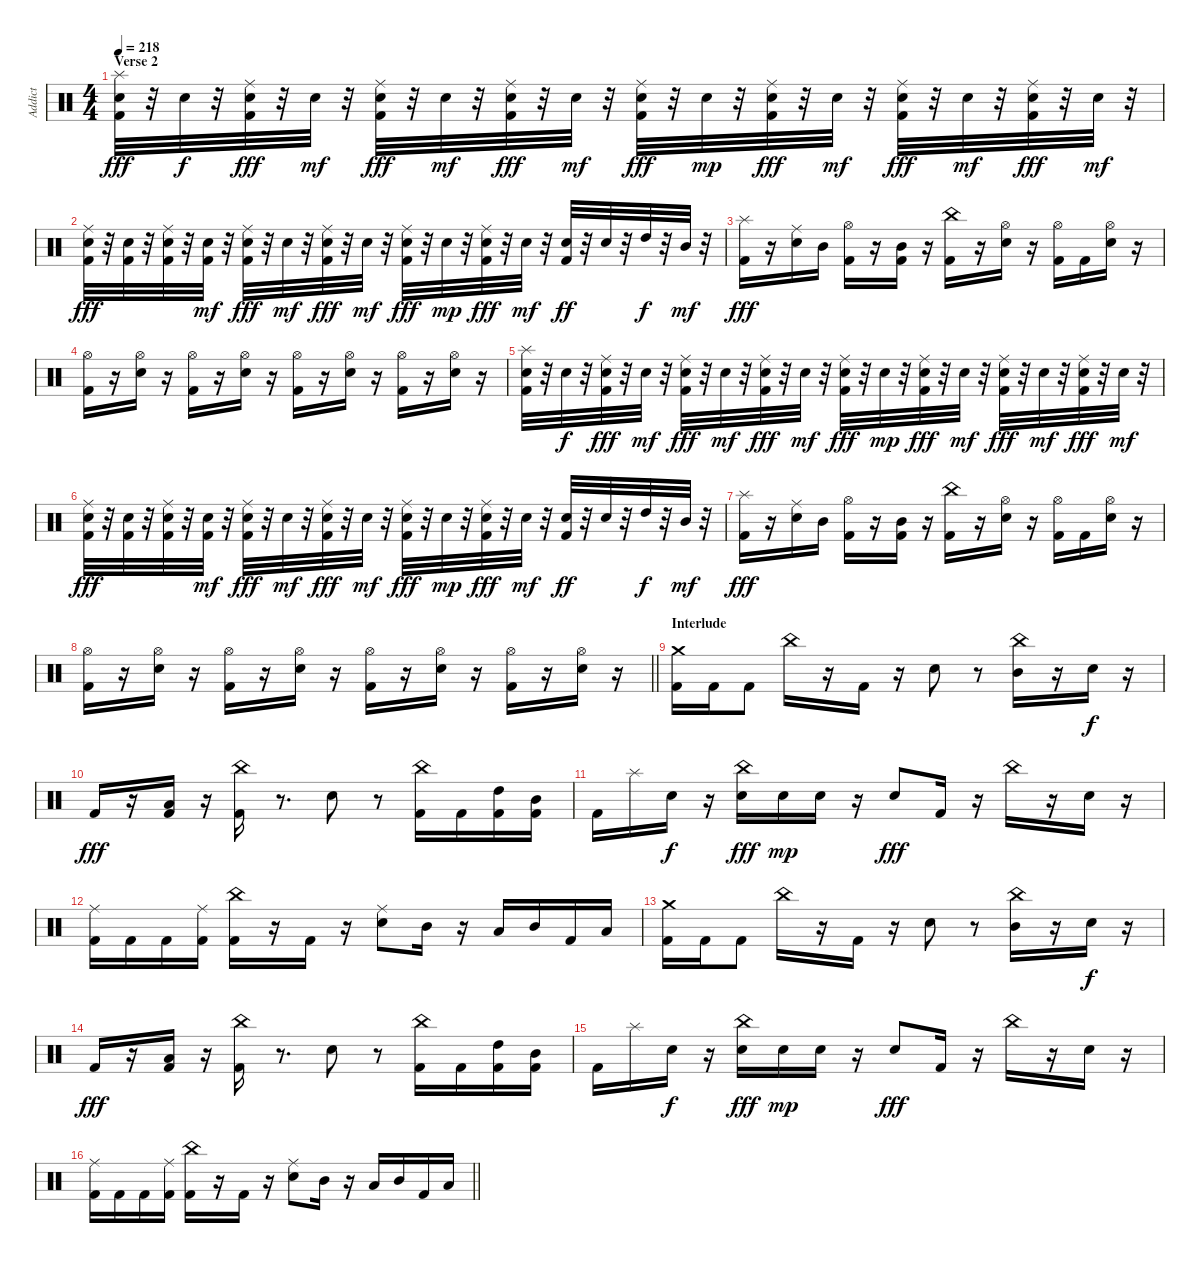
\track ("Addict" "Addict") {instrument percussion}
\staff {score}
\articulation defaults
\ts (4 4)
\section ("" "Verse 2")
\tempo 218
\clef neutral
\ks c
("Kick (hit) 2" "Snare (hit) 2" "Splash (hit)").32{dy fff} r.32 "Snare (hit) 2".32{dy f} r.32 ("Kick (hit) 2" "Snare (hit) 2" "Ride (middle)").32{dy fff} r.32 "Snare (hit) 2".32{dy mf} r.32 ("Kick (hit) 2" "Snare (hit) 2" "Ride (middle)").32{dy fff} r.32 "Snare (hit) 2".32{dy mf} r.32 ("Kick (hit) 2" "Snare (hit) 2" "Ride (middle)").32{dy fff} r.32 "Snare (hit) 2".32{dy mf} r.32 ("Kick (hit) 2" "Snare (hit) 2" "Ride (middle)").32{dy fff} r.32 "Snare (hit) 2".32{dy mp} r.32 ("Kick (hit) 2" "Snare (hit) 2" "Ride (middle)").32{dy fff} r.32 "Snare (hit) 2".32{dy mf} r.32 ("Kick (hit) 2" "Snare (hit) 2" "Ride (middle)").32{dy fff} r.32 "Snare (hit) 2".32{dy mf} r.32 ("Kick (hit) 2" "Snare (hit) 2" "Ride (middle)").32{dy fff} r.32 "Snare (hit) 2".32{dy mf} r.32 |
("Kick (hit) 2" "Snare (hit) 2" "Ride (middle)").32{dy fff} r.32 ("Kick (hit) 2" "Snare (hit) 2").32 r.32 ("Kick (hit) 2" "Snare (hit) 2" "Ride (middle)").32 r.32 ("Kick (hit) 2" "Snare (hit) 2").32{dy mf} r.32 ("Kick (hit) 2" "Snare (hit) 2" "Ride (middle)").32{dy fff} r.32 "Snare (hit) 2".32{dy mf} r.32 ("Kick (hit) 2" "Snare (hit) 2" "Ride (middle)").32{dy fff} r.32 "Snare (hit) 2".32{dy mf} r.32 ("Kick (hit) 2" "Snare (hit) 2" "Ride (middle)").32{dy fff} r.32 "Snare (hit) 2".32{dy mp} r.32 ("Kick (hit) 2" "Snare (hit) 2" "Ride (middle)").32{dy fff} r.32 "Snare (hit) 2".32{dy mf} r.32 ("Kick (hit) 2" "Snare (hit) 2").32{dy ff} r.32 "Snare (hit) 2".32 r.32 "High Tom (hit)".32{dy f} r.32 "Mid Tom (hit)".32{dy mf} r.32 |
("Kick (hit) 2" "Splash (hit)").16{dy fff} r.16 ("Snare (hit) 2" "Ride (middle)").16 "Mid Tom (hit)".16 ("Kick (hit) 2" "Hi-Hat (open)").16 r.16 ("Kick (hit) 2" "Mid Tom (hit)").16 r.16 ("Kick (hit) 2" "China (hit)").16 r.16 ("Snare (hit) 2" "Hi-Hat (open)").16 r.16 ("Kick (hit) 2" "Hi-Hat (open)").16 "Kick (hit) 2".16 ("Snare (hit) 2" "Hi-Hat (open)").16 r.16 |
("Kick (hit) 2" "Hi-Hat (open)").16 r.16 ("Snare (hit) 2" "Hi-Hat (open)").16 r.16 ("Kick (hit) 2" "Hi-Hat (open)").16 r.16 ("Snare (hit) 2" "Hi-Hat (open)").16 r.16 ("Kick (hit) 2" "Hi-Hat (open)").16 r.16 ("Snare (hit) 2" "Hi-Hat (open)").16 r.16 ("Kick (hit) 2" "Hi-Hat (open)").16 r.16 ("Snare (hit) 2" "Hi-Hat (open)").16 r.16 |
("Kick (hit) 2" "Snare (hit) 2" "Splash (hit)").32 r.32 "Snare (hit) 2".32{dy f} r.32 ("Kick (hit) 2" "Snare (hit) 2" "Ride (middle)").32{dy fff} r.32 "Snare (hit) 2".32{dy mf} r.32 ("Kick (hit) 2" "Snare (hit) 2" "Ride (middle)").32{dy fff} r.32 "Snare (hit) 2".32{dy mf} r.32 ("Kick (hit) 2" "Snare (hit) 2" "Ride (middle)").32{dy fff} r.32 "Snare (hit) 2".32{dy mf} r.32 ("Kick (hit) 2" "Snare (hit) 2" "Ride (middle)").32{dy fff} r.32 "Snare (hit) 2".32{dy mp} r.32 ("Kick (hit) 2" "Snare (hit) 2" "Ride (middle)").32{dy fff} r.32 "Snare (hit) 2".32{dy mf} r.32 ("Kick (hit) 2" "Snare (hit) 2" "Ride (middle)").32{dy fff} r.32 "Snare (hit) 2".32{dy mf} r.32 ("Kick (hit) 2" "Snare (hit) 2" "Ride (middle)").32{dy fff} r.32 "Snare (hit) 2".32{dy mf} r.32 |
("Kick (hit) 2" "Snare (hit) 2" "Ride (middle)").32{dy fff} r.32 ("Kick (hit) 2" "Snare (hit) 2").32 r.32 ("Kick (hit) 2" "Snare (hit) 2" "Ride (middle)").32 r.32 ("Kick (hit) 2" "Snare (hit) 2").32{dy mf} r.32 ("Kick (hit) 2" "Snare (hit) 2" "Ride (middle)").32{dy fff} r.32 "Snare (hit) 2".32{dy mf} r.32 ("Kick (hit) 2" "Snare (hit) 2" "Ride (middle)").32{dy fff} r.32 "Snare (hit) 2".32{dy mf} r.32 ("Kick (hit) 2" "Snare (hit) 2" "Ride (middle)").32{dy fff} r.32 "Snare (hit) 2".32{dy mp} r.32 ("Kick (hit) 2" "Snare (hit) 2" "Ride (middle)").32{dy fff} r.32 "Snare (hit) 2".32{dy mf} r.32 ("Kick (hit) 2" "Snare (hit) 2").32{dy ff} r.32 "Snare (hit) 2".32 r.32 "High Tom (hit)".32{dy f} r.32 "Mid Tom (hit)".32{dy mf} r.32 |
("Kick (hit) 2" "Splash (hit)").16{dy fff} r.16 ("Snare (hit) 2" "Ride (middle)").16 "Mid Tom (hit)".16 ("Kick (hit) 2" "Hi-Hat (open)").16 r.16 ("Kick (hit) 2" "Mid Tom (hit)").16 r.16 ("Kick (hit) 2" "China (hit)").16 r.16 ("Snare (hit) 2" "Hi-Hat (open)").16 r.16 ("Kick (hit) 2" "Hi-Hat (open)").16 "Kick (hit) 2".16 ("Snare (hit) 2" "Hi-Hat (open)").16 r.16 |
\barLineRight lightlight
("Kick (hit) 2" "Hi-Hat (open)").16 r.16 ("Snare (hit) 2" "Hi-Hat (open)").16 r.16 ("Kick (hit) 2" "Hi-Hat (open)").16 r.16 ("Snare (hit) 2" "Hi-Hat (open)").16 r.16 ("Kick (hit) 2" "Hi-Hat (open)").16 r.16 ("Snare (hit) 2" "Hi-Hat (open)").16 r.16 ("Kick (hit) 2" "Hi-Hat (open)").16 r.16 ("Snare (hit) 2" "Hi-Hat (open)").16 r.16 |
\section ("" "Interlude")
("Kick (hit) 2" "Crash medium (hit)").16 "Kick (hit) 2".16 "Kick (hit) 2".8 "China (hit)".16 r.16 "Kick (hit) 2".16 r.16 "Snare (hit) 2".8 r.8 ("Mid Tom (hit)" "China (hit)").16 r.16 "Snare (hit) 2".16{dy f} r.16 |
"Kick (hit) 2".16{dy fff} r.16 ("Kick (hit) 2" "Low Tom (hit)").16 r.16 ("Kick (hit) 2" "China (hit)").16 r.8{d} "Snare (hit) 2".8 r.8 ("Kick (hit) 2" "China (hit)").16 "Kick (hit) 2".16 ("Kick (hit) 2" "High Tom (hit)").16 ("Kick (hit) 2" "Mid Tom (hit)").16 |
"Kick (hit) 2".16 "Splash (hit)".16 "Snare (hit) 2".16{dy f} r.16 ("Snare (hit) 2" "China (hit)").16{dy fff} "Snare (hit) 2".16{dy mp} "Snare (hit) 2".16 r.16 "Snare (hit) 2".8{dy fff} "Kick (hit) 2".16 r.16 "China (hit)".16 r.16 "Snare (hit) 2".16 r.16 |
("Kick (hit) 2" "Ride (middle)").16 "Kick (hit) 2".16 "Kick (hit) 2".16 ("Kick (hit) 2" "Ride (middle)").16 ("Kick (hit) 2" "China (hit)").16 r.16 "Kick (hit) 2".16 r.16 ("Snare (hit) 2" "Ride (middle)").8 "Mid Tom (hit)".16 r.16 "Low Tom (hit)".16 "Mid Tom (hit)".16 "Kick (hit) 2".16 "Low Tom (hit)".16 |
("Kick (hit) 2" "Crash medium (hit)").16 "Kick (hit) 2".16 "Kick (hit) 2".8 "China (hit)".16 r.16 "Kick (hit) 2".16 r.16 "Snare (hit) 2".8 r.8 ("Mid Tom (hit)" "China (hit)").16 r.16 "Snare (hit) 2".16{dy f} r.16 |
"Kick (hit) 2".16{dy fff} r.16 ("Kick (hit) 2" "Low Tom (hit)").16 r.16 ("Kick (hit) 2" "China (hit)").16 r.8{d} "Snare (hit) 2".8 r.8 ("Kick (hit) 2" "China (hit)").16 "Kick (hit) 2".16 ("Kick (hit) 2" "High Tom (hit)").16 ("Kick (hit) 2" "Mid Tom (hit)").16 |
"Kick (hit) 2".16 "Splash (hit)".16 "Snare (hit) 2".16{dy f} r.16 ("Snare (hit) 2" "China (hit)").16{dy fff} "Snare (hit) 2".16{dy mp} "Snare (hit) 2".16 r.16 "Snare (hit) 2".8{dy fff} "Kick (hit) 2".16 r.16 "China (hit)".16 r.16 "Snare (hit) 2".16 r.16 |
\barLineRight lightlight
("Kick (hit) 2" "Ride (middle)").16 "Kick (hit) 2".16 "Kick (hit) 2".16 ("Kick (hit) 2" "Ride (middle)").16 ("Kick (hit) 2" "China (hit)").16 r.16 "Kick (hit) 2".16 r.16 ("Snare (hit) 2" "Ride (middle)").8 "Mid Tom (hit)".16 r.16 "Low Tom (hit)".16 "Mid Tom (hit)".16 "Kick (hit) 2".16 "Low Tom (hit)".16
